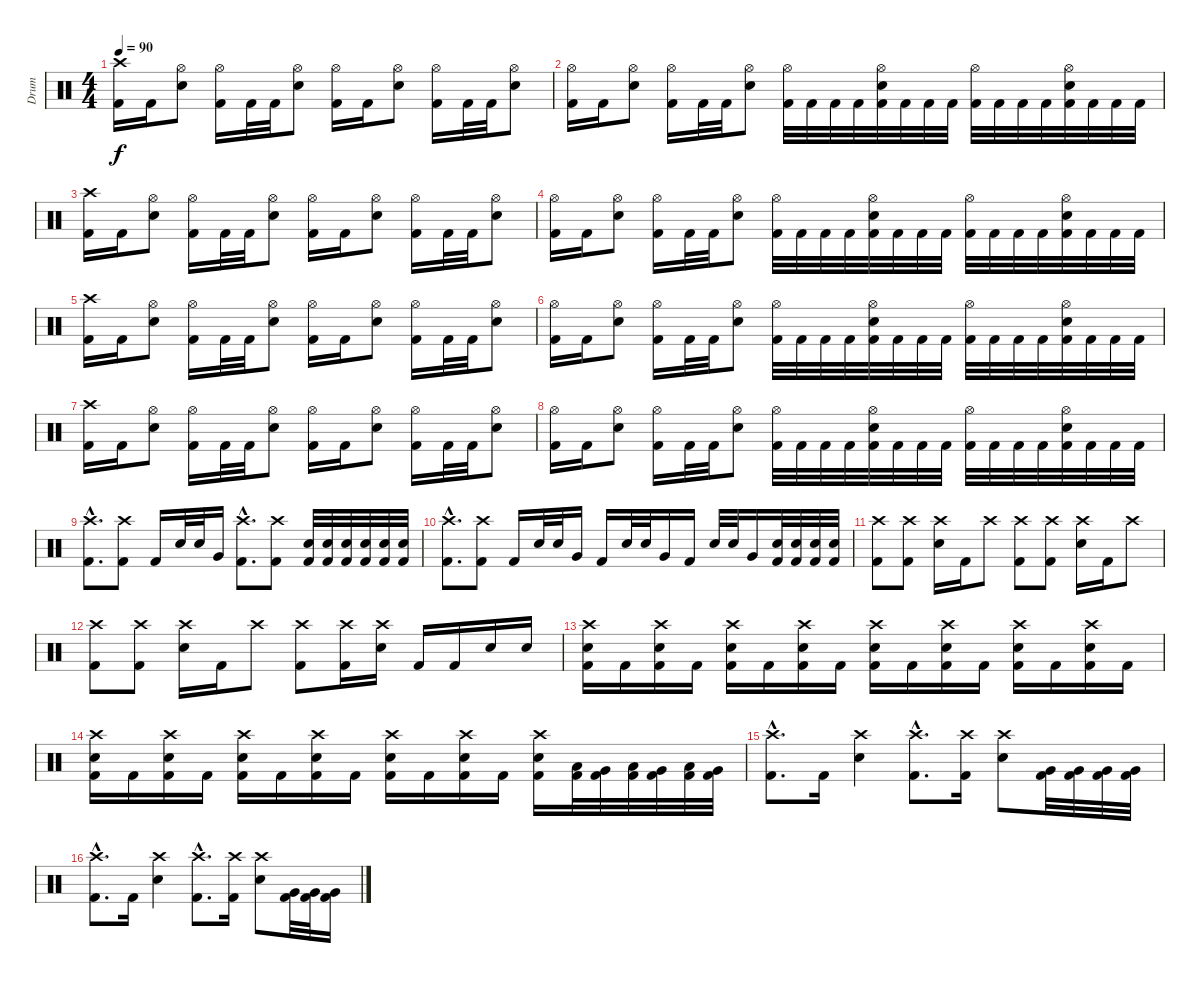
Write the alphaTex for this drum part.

\track ("Drum" "Drum") {instrument percussion}
\staff {score}
\articulation defaults
\ts (4 4)
\tempo 90
\clef neutral
\ks c
("Crash high (hit)" "Kick (hit) 2").16{dy f} "Kick (hit) 2".16 ("Electric Snare (hit)" "Hi-Hat (open)").8 ("Hi-Hat (open)" "Kick (hit) 2").16 "Kick (hit) 2".32 "Kick (hit) 2".32 ("Electric Snare (hit)" "Hi-Hat (open)").8 ("Hi-Hat (open)" "Kick (hit) 2").16 "Kick (hit) 2".16 ("Electric Snare (hit)" "Hi-Hat (open)").8 ("Hi-Hat (open)" "Kick (hit) 2").16 "Kick (hit) 2".32 "Kick (hit) 2".32 ("Electric Snare (hit)" "Hi-Hat (open)").8 |
("Hi-Hat (open)" "Kick (hit) 2").16 "Kick (hit) 2".16 ("Electric Snare (hit)" "Hi-Hat (open)").8 ("Hi-Hat (open)" "Kick (hit) 2").16 "Kick (hit) 2".32 "Kick (hit) 2".32 ("Electric Snare (hit)" "Hi-Hat (open)").8 ("Hi-Hat (open)" "Kick (hit) 2").32 "Kick (hit) 2".32 "Kick (hit) 2".32 "Kick (hit) 2".32 ("Electric Snare (hit)" "Hi-Hat (open)" "Kick (hit) 2").32 "Kick (hit) 2".32 "Kick (hit) 2".32 "Kick (hit) 2".32 ("Hi-Hat (open)" "Kick (hit) 2").32 "Kick (hit) 2".32 "Kick (hit) 2".32 "Kick (hit) 2".32 ("Electric Snare (hit)" "Hi-Hat (open)" "Kick (hit) 2").32 "Kick (hit) 2".32 "Kick (hit) 2".32 "Kick (hit) 2".32 |
("Crash high (hit)" "Kick (hit) 2").16 "Kick (hit) 2".16 ("Electric Snare (hit)" "Hi-Hat (open)").8 ("Hi-Hat (open)" "Kick (hit) 2").16 "Kick (hit) 2".32 "Kick (hit) 2".32 ("Electric Snare (hit)" "Hi-Hat (open)").8 ("Hi-Hat (open)" "Kick (hit) 2").16 "Kick (hit) 2".16 ("Electric Snare (hit)" "Hi-Hat (open)").8 ("Hi-Hat (open)" "Kick (hit) 2").16 "Kick (hit) 2".32 "Kick (hit) 2".32 ("Electric Snare (hit)" "Hi-Hat (open)").8 |
("Hi-Hat (open)" "Kick (hit) 2").16 "Kick (hit) 2".16 ("Electric Snare (hit)" "Hi-Hat (open)").8 ("Hi-Hat (open)" "Kick (hit) 2").16 "Kick (hit) 2".32 "Kick (hit) 2".32 ("Electric Snare (hit)" "Hi-Hat (open)").8 ("Hi-Hat (open)" "Kick (hit) 2").32 "Kick (hit) 2".32 "Kick (hit) 2".32 "Kick (hit) 2".32 ("Electric Snare (hit)" "Hi-Hat (open)" "Kick (hit) 2").32 "Kick (hit) 2".32 "Kick (hit) 2".32 "Kick (hit) 2".32 ("Hi-Hat (open)" "Kick (hit) 2").32 "Kick (hit) 2".32 "Kick (hit) 2".32 "Kick (hit) 2".32 ("Electric Snare (hit)" "Hi-Hat (open)" "Kick (hit) 2").32 "Kick (hit) 2".32 "Kick (hit) 2".32 "Kick (hit) 2".32 |
("Crash high (hit)" "Kick (hit) 2").16 "Kick (hit) 2".16 ("Electric Snare (hit)" "Hi-Hat (open)").8 ("Hi-Hat (open)" "Kick (hit) 2").16 "Kick (hit) 2".32 "Kick (hit) 2".32 ("Electric Snare (hit)" "Hi-Hat (open)").8 ("Hi-Hat (open)" "Kick (hit) 2").16 "Kick (hit) 2".16 ("Electric Snare (hit)" "Hi-Hat (open)").8 ("Hi-Hat (open)" "Kick (hit) 2").16 "Kick (hit) 2".32 "Kick (hit) 2".32 ("Electric Snare (hit)" "Hi-Hat (open)").8 |
("Hi-Hat (open)" "Kick (hit) 2").16 "Kick (hit) 2".16 ("Electric Snare (hit)" "Hi-Hat (open)").8 ("Hi-Hat (open)" "Kick (hit) 2").16 "Kick (hit) 2".32 "Kick (hit) 2".32 ("Electric Snare (hit)" "Hi-Hat (open)").8 ("Hi-Hat (open)" "Kick (hit) 2").32 "Kick (hit) 2".32 "Kick (hit) 2".32 "Kick (hit) 2".32 ("Electric Snare (hit)" "Hi-Hat (open)" "Kick (hit) 2").32 "Kick (hit) 2".32 "Kick (hit) 2".32 "Kick (hit) 2".32 ("Hi-Hat (open)" "Kick (hit) 2").32 "Kick (hit) 2".32 "Kick (hit) 2".32 "Kick (hit) 2".32 ("Electric Snare (hit)" "Hi-Hat (open)" "Kick (hit) 2").32 "Kick (hit) 2".32 "Kick (hit) 2".32 "Kick (hit) 2".32 |
("Crash high (hit)" "Kick (hit) 2").16 "Kick (hit) 2".16 ("Electric Snare (hit)" "Hi-Hat (open)").8 ("Hi-Hat (open)" "Kick (hit) 2").16 "Kick (hit) 2".32 "Kick (hit) 2".32 ("Electric Snare (hit)" "Hi-Hat (open)").8 ("Hi-Hat (open)" "Kick (hit) 2").16 "Kick (hit) 2".16 ("Electric Snare (hit)" "Hi-Hat (open)").8 ("Hi-Hat (open)" "Kick (hit) 2").16 "Kick (hit) 2".32 "Kick (hit) 2".32 ("Electric Snare (hit)" "Hi-Hat (open)").8 |
("Hi-Hat (open)" "Kick (hit) 2").16 "Kick (hit) 2".16 ("Electric Snare (hit)" "Hi-Hat (open)").8 ("Hi-Hat (open)" "Kick (hit) 2").16 "Kick (hit) 2".32 "Kick (hit) 2".32 ("Electric Snare (hit)" "Hi-Hat (open)").8 ("Hi-Hat (open)" "Kick (hit) 2").32 "Kick (hit) 2".32 "Kick (hit) 2".32 "Kick (hit) 2".32 ("Electric Snare (hit)" "Hi-Hat (open)" "Kick (hit) 2").32 "Kick (hit) 2".32 "Kick (hit) 2".32 "Kick (hit) 2".32 ("Hi-Hat (open)" "Kick (hit) 2").32 "Kick (hit) 2".32 "Kick (hit) 2".32 "Kick (hit) 2".32 ("Electric Snare (hit)" "Hi-Hat (open)" "Kick (hit) 2").32 "Kick (hit) 2".32 "Kick (hit) 2".32 "Kick (hit) 2".32 |
("Crash high (hit)"{hac} "Kick (hit) 2"{hac}).8{d} ("Crash high (hit)" "Kick (hit) 2").8 "Kick (hit) 2".16 "Electric Snare (hit)".32 "Electric Snare (hit)".32 "Very Low Tom (hit)".16 ("Crash high (hit)"{hac} "Kick (hit) 2"{hac}).8{d} ("Crash high (hit)" "Kick (hit) 2").8 ("Electric Snare (hit)" "Kick (hit) 2").32 ("Electric Snare (hit)" "Kick (hit) 2").32 ("Electric Snare (hit)" "Kick (hit) 2").32 ("Electric Snare (hit)" "Kick (hit) 2").32 ("Electric Snare (hit)" "Kick (hit) 2").32 ("Electric Snare (hit)" "Kick (hit) 2").32 |
("Crash high (hit)"{hac} "Kick (hit) 2"{hac}).8{d} ("Crash high (hit)" "Kick (hit) 2").8 "Kick (hit) 2".16 "Electric Snare (hit)".32 "Electric Snare (hit)".32 "Very Low Tom (hit)".16 "Kick (hit) 2".16 "Electric Snare (hit)".32 "Electric Snare (hit)".32 "Very Low Tom (hit)".16 "Kick (hit) 2".16 "Electric Snare (hit)".32 "Electric Snare (hit)".32 "Very Low Tom (hit)".16 ("Electric Snare (hit)" "Kick (hit) 2").32 ("Electric Snare (hit)" "Kick (hit) 2").32 ("Electric Snare (hit)" "Kick (hit) 2").32 ("Electric Snare (hit)" "Kick (hit) 2").32 |
("Crash high (hit)" "Kick (hit) 2").8 ("Crash high (hit)" "Kick (hit) 2").8 ("Crash high (hit)" "Electric Snare (hit)").16 "Kick (hit) 2".16 "Crash high (hit)".8 ("Crash high (hit)" "Kick (hit) 2").8 ("Crash high (hit)" "Kick (hit) 2").8 ("Crash high (hit)" "Electric Snare (hit)").16 "Kick (hit) 2".16 "Crash high (hit)".8 |
("Crash high (hit)" "Kick (hit) 2").8 ("Crash high (hit)" "Kick (hit) 2").8 ("Crash high (hit)" "Electric Snare (hit)").16 "Kick (hit) 2".16 "Crash high (hit)".8 ("Crash high (hit)" "Kick (hit) 2").8 ("Crash high (hit)" "Kick (hit) 2").16 ("Crash high (hit)" "Electric Snare (hit)").16 "Kick (hit) 2".16 "Kick (hit) 2".16 "Electric Snare (hit)".16 "Electric Snare (hit)".16 |
("Crash high (hit)" "Electric Snare (hit)" "Kick (hit) 2").16 "Kick (hit) 2".16 ("Crash high (hit)" "Electric Snare (hit)" "Kick (hit) 2").16 "Kick (hit) 2".16 ("Crash high (hit)" "Electric Snare (hit)" "Kick (hit) 2").16 "Kick (hit) 2".16 ("Crash high (hit)" "Electric Snare (hit)" "Kick (hit) 2").16 "Kick (hit) 2".16 ("Crash high (hit)" "Electric Snare (hit)" "Kick (hit) 2").16 "Kick (hit) 2".16 ("Crash high (hit)" "Electric Snare (hit)" "Kick (hit) 2").16 "Kick (hit) 2".16 ("Crash high (hit)" "Electric Snare (hit)" "Kick (hit) 2").16 "Kick (hit) 2".16 ("Crash high (hit)" "Electric Snare (hit)" "Kick (hit) 2").16 "Kick (hit) 2".16 |
("Crash high (hit)" "Electric Snare (hit)" "Kick (hit) 2").16 "Kick (hit) 2".16 ("Crash high (hit)" "Electric Snare (hit)" "Kick (hit) 2").16 "Kick (hit) 2".16 ("Crash high (hit)" "Electric Snare (hit)" "Kick (hit) 2").16 "Kick (hit) 2".16 ("Crash high (hit)" "Electric Snare (hit)" "Kick (hit) 2").16 "Kick (hit) 2".16 ("Crash high (hit)" "Electric Snare (hit)" "Kick (hit) 2").16 "Kick (hit) 2".16 ("Crash high (hit)" "Electric Snare (hit)" "Kick (hit) 2").16 "Kick (hit) 2".16 ("Crash high (hit)" "Electric Snare (hit)" "Kick (hit) 2").16 ("Low Tom (hit)" "Kick (hit) 2").32 ("Very Low Tom (hit)" "Kick (hit) 2").32 ("Low Tom (hit)" "Kick (hit) 2").32 ("Very Low Tom (hit)" "Kick (hit) 2").32 ("Low Floor Tom (hit)" "Kick (hit) 2").32 ("Very Low Tom (hit)" "Kick (hit) 2").32 |
("Crash high (hit)"{hac} "Kick (hit) 2"{hac}).8{d} "Kick (hit) 2".16 ("Crash high (hit)" "Electric Snare (hit)").4 ("Crash high (hit)"{hac} "Kick (hit) 2"{hac}).8{d} ("Crash high (hit)" "Kick (hit) 2").16 ("Crash high (hit)" "Electric Snare (hit)").8 ("Very Low Tom (hit)" "Kick (hit) 2").32 ("Very Low Tom (hit)" "Kick (hit) 2").32 ("Very Low Tom (hit)" "Kick (hit) 2").32 ("Very Low Tom (hit)" "Kick (hit) 2").32 |
("Crash high (hit)"{hac} "Kick (hit) 2"{hac}).8{d} "Kick (hit) 2".16 ("Crash high (hit)" "Electric Snare (hit)").4 ("Crash high (hit)"{hac} "Kick (hit) 2"{hac}).8{d} ("Crash high (hit)" "Kick (hit) 2").16 ("Crash high (hit)" "Electric Snare (hit)").8 ("Very Low Tom (hit)" "Kick (hit) 2").32 ("Very Low Tom (hit)" "Kick (hit) 2").32 ("Very Low Tom (hit)" "Kick (hit) 2").16
